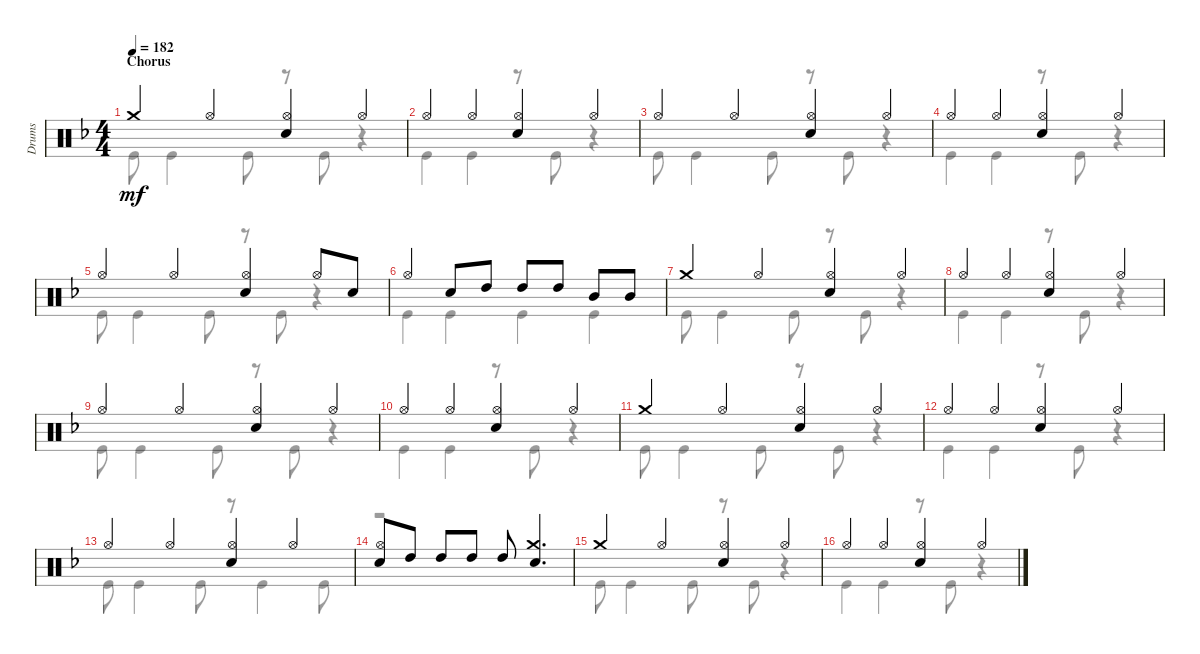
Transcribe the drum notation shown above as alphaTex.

\track ("Drums" "Drums") {instrument percussion}
\staff {score}
\articulation defaults
\voice
\ts (4 4)
\section ("" "Chorus")
\tempo 182
\clef neutral
\ks f "Crash medium (hit)".4{dy mf} "Hi-Hat (open)".4
("Hi-Hat (open)" "Snare (hit) 2").4 "Hi-Hat (open)".4 |
"Hi-Hat (open)".4 "Hi-Hat (open)".4 ("Hi-Hat (open)" "Snare (hit) 2").4 "Hi-Hat (open)".4 |
"Hi-Hat (open)".4 "Hi-Hat (open)".4 ("Hi-Hat (open)" "Snare (hit) 2").4 "Hi-Hat (open)".4 |
"Hi-Hat (open)".4 "Hi-Hat (open)".4 ("Hi-Hat (open)" "Snare (hit) 2").4 "Hi-Hat (open)".4 |
"Hi-Hat (open)".4 "Hi-Hat (open)".4 ("Hi-Hat (open)" "Snare (hit) 2").4 "Hi-Hat (open)".8 "Snare (hit) 2".8 |
"Hi-Hat (open)".4 "Snare (hit) 2".8 "High Tom (hit)".8 "High Tom (hit)".8 "High Tom (hit)".8 "Mid Tom (hit)".8 "Mid Tom (hit)".8 |
"Crash medium (hit)".4 "Hi-Hat (open)".4 ("Hi-Hat (open)" "Snare (hit) 2").4 "Hi-Hat (open)".4 |
"Hi-Hat (open)".4 "Hi-Hat (open)".4 ("Hi-Hat (open)" "Snare (hit) 2").4 "Hi-Hat (open)".4 |
"Hi-Hat (open)".4 "Hi-Hat (open)".4 ("Hi-Hat (open)" "Snare (hit) 2").4 "Hi-Hat (open)".4 |
"Hi-Hat (open)".4 "Hi-Hat (open)".4 ("Hi-Hat (open)" "Snare (hit) 2").4 "Hi-Hat (open)".4 |
"Crash medium (hit)".4 "Hi-Hat (open)".4 ("Hi-Hat (open)" "Snare (hit) 2").4 "Hi-Hat (open)".4 |
"Hi-Hat (open)".4 "Hi-Hat (open)".4 ("Hi-Hat (open)" "Snare (hit) 2").4 "Hi-Hat (open)".4 |
"Hi-Hat (open)".4 "Hi-Hat (open)".4 ("Hi-Hat (open)" "Snare (hit) 2").4 "Hi-Hat (open)".4 |
("Hi-Hat (open)" "Snare (hit) 2").8 "High Tom (hit)".8 "High Tom (hit)".8 "High Tom (hit)".8 "High Tom (hit)".8 ("Crash medium (hit)" "Snare (hit) 2").4{d} |
"Crash medium (hit)".4 "Hi-Hat (open)".4 ("Hi-Hat (open)" "Snare (hit) 2").4 "Hi-Hat (open)".4 |
"Hi-Hat (open)".4 "Hi-Hat (open)".4 ("Hi-Hat (open)" "Snare (hit) 2").4 "Hi-Hat (open)".4
\voice
\clef neutral
\ottava regular
\simile none
\ks f "Kick (hit)".8{dy mf} "Kick (hit)".4 "Kick (hit)".8
r.8 "Kick (hit)".8 r.4 |
"Kick (hit)".4 "Kick (hit)".4 r.8 "Kick (hit)".8 r.4 |
"Kick (hit)".8 "Kick (hit)".4 "Kick (hit)".8 r.8 "Kick (hit)".8 r.4 |
"Kick (hit)".4 "Kick (hit)".4 r.8 "Kick (hit)".8 r.4 |
"Kick (hit)".8 "Kick (hit)".4 "Kick (hit)".8 r.8 "Kick (hit)".8 r.4 |
"Kick (hit)".4 "Kick (hit)".4 "Kick (hit)".4 "Kick (hit)".4 |
"Kick (hit)".8 "Kick (hit)".4 "Kick (hit)".8 r.8 "Kick (hit)".8 r.4 |
"Kick (hit)".4 "Kick (hit)".4 r.8 "Kick (hit)".8 r.4 |
"Kick (hit)".8 "Kick (hit)".4 "Kick (hit)".8 r.8 "Kick (hit)".8 r.4 |
"Kick (hit)".4 "Kick (hit)".4 r.8 "Kick (hit)".8 r.4 |
"Kick (hit)".8 "Kick (hit)".4 "Kick (hit)".8 r.8 "Kick (hit)".8 r.4 |
"Kick (hit)".4 "Kick (hit)".4 r.8 "Kick (hit)".8 r.4 |
"Kick (hit)".8 "Kick (hit)".4 "Kick (hit)".8 r.8 "Kick (hit)".4 "Kick (hit)".8 |
r.1 |
"Kick (hit)".8 "Kick (hit)".4 "Kick (hit)".8 r.8 "Kick (hit)".8 r.4 |
"Kick (hit)".4 "Kick (hit)".4 r.8 "Kick (hit)".8 r.4
